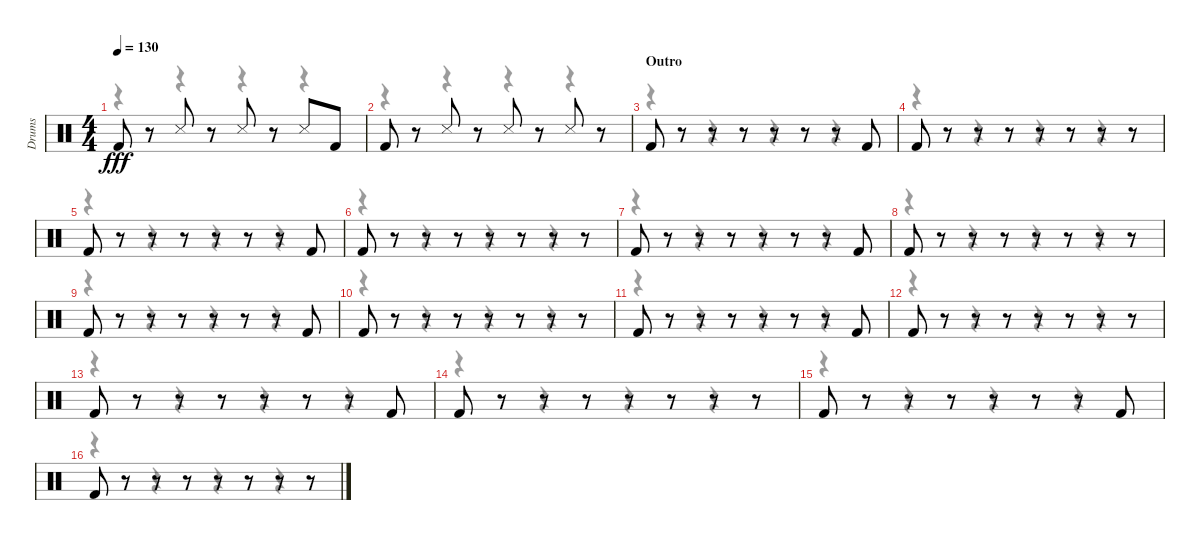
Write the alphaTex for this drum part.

\track ("Drums" "Drums") {instrument percussion}
\staff {score}
\articulation defaults
\voice
\ts (4 4)
\tempo 130
\clef neutral
\ks c "Kick (hit) 2".8{dy fff}
r.8 "Snare (side stick) 3".8 r.8 "Snare (side stick) 3".8 r.8 "Snare (side stick) 3".8 "Kick (hit) 2".8 |
"Kick (hit) 2".8 r.8 "Snare (side stick) 3".8 r.8 "Snare (side stick) 3".8 r.8 "Snare (side stick) 3".8 r.8 |
\section ("" "Outro")
"Kick (hit) 2".8 r.8 r.8 r.8 r.8 r.8 r.8 "Kick (hit) 2".8 |
"Kick (hit) 2".8 r.8 r.8 r.8 r.8 r.8 r.8 r.8 |
"Kick (hit) 2".8 r.8 r.8 r.8 r.8 r.8 r.8 "Kick (hit) 2".8 |
"Kick (hit) 2".8 r.8 r.8 r.8 r.8 r.8 r.8 r.8 |
"Kick (hit) 2".8 r.8 r.8 r.8 r.8 r.8 r.8 "Kick (hit) 2".8 |
"Kick (hit) 2".8 r.8 r.8 r.8 r.8 r.8 r.8 r.8 |
"Kick (hit) 2".8 r.8 r.8 r.8 r.8 r.8 r.8 "Kick (hit) 2".8 |
"Kick (hit) 2".8 r.8 r.8 r.8 r.8 r.8 r.8 r.8 |
"Kick (hit) 2".8 r.8 r.8 r.8 r.8 r.8 r.8 "Kick (hit) 2".8 |
"Kick (hit) 2".8 r.8 r.8 r.8 r.8 r.8 r.8 r.8 |
"Kick (hit) 2".8 r.8 r.8 r.8 r.8 r.8 r.8 "Kick (hit) 2".8 |
"Kick (hit) 2".8 r.8 r.8 r.8 r.8 r.8 r.8 r.8 |
"Kick (hit) 2".8 r.8 r.8 r.8 r.8 r.8 r.8 "Kick (hit) 2".8 |
"Kick (hit) 2".8 r.8 r.8 r.8 r.8 r.8 r.8 r.8
\voice
\clef neutral
\ottava regular
\simile none
\ks c
r.4{dy f} r.4 r.4 r.4 |
r.4 r.4 r.4 r.4 |
r.4 r.4 r.4 r.4 |
r.4 r.4 r.4 r.4 |
r.4 r.4 r.4 r.4 |
r.4 r.4 r.4 r.4 |
r.4 r.4 r.4 r.4 |
r.4 r.4 r.4 r.4 |
r.4 r.4 r.4 r.4 |
r.4 r.4 r.4 r.4 |
r.4 r.4 r.4 r.4 |
r.4 r.4 r.4 r.4 |
r.4 r.4 r.4 r.4 |
r.4 r.4 r.4 r.4 |
r.4 r.4 r.4 r.4 |
r.4 r.4 r.4 r.4
